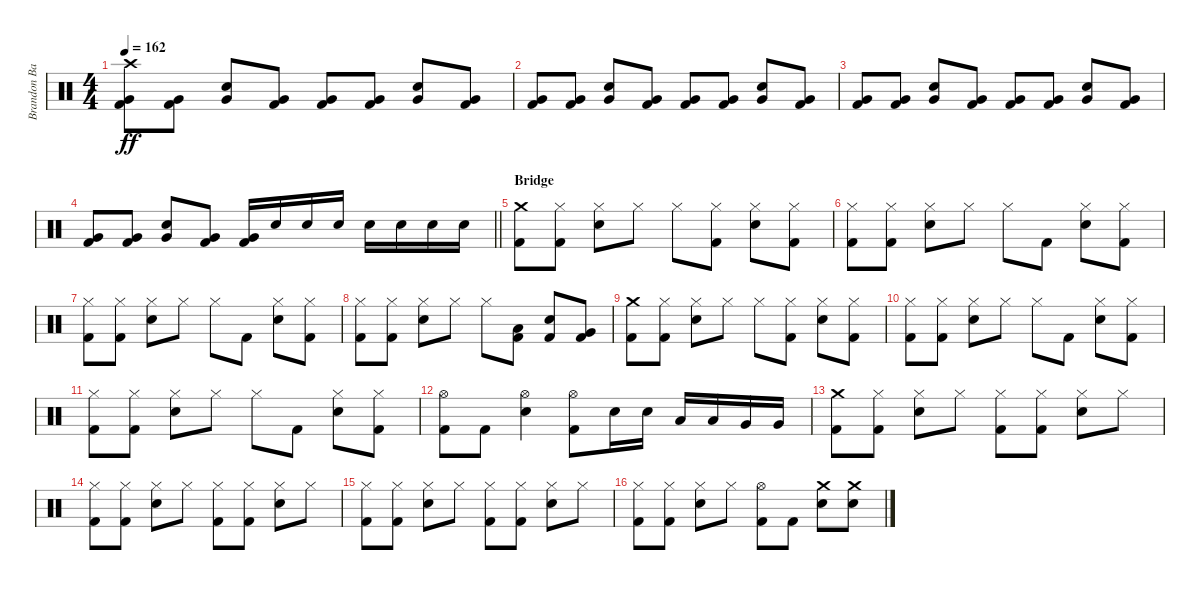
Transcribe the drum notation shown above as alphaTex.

\track ("Brandon Barnes - Drums" "Brandon Ba") {instrument percussion}
\staff {score}
\articulation defaults
\ts (4 4)
\tempo 162
\clef neutral
\ks c
("Very Low Tom (hit)" "Kick (hit) 2" "Crash high (hit)").8{dy ff} ("Very Low Tom (hit)" "Kick (hit) 2").8 ("Snare (hit) 2" "Very Low Tom (hit)").8 ("Very Low Tom (hit)" "Kick (hit) 2").8 ("Very Low Tom (hit)" "Kick (hit) 2").8 ("Very Low Tom (hit)" "Kick (hit) 2").8 ("Snare (hit) 2" "Very Low Tom (hit)").8 ("Very Low Tom (hit)" "Kick (hit) 2").8 |
("Very Low Tom (hit)" "Kick (hit) 2").8 ("Very Low Tom (hit)" "Kick (hit) 2").8 ("Snare (hit) 2" "Very Low Tom (hit)").8 ("Very Low Tom (hit)" "Kick (hit) 2").8 ("Very Low Tom (hit)" "Kick (hit) 2").8 ("Very Low Tom (hit)" "Kick (hit) 2").8 ("Snare (hit) 2" "Very Low Tom (hit)").8 ("Very Low Tom (hit)" "Kick (hit) 2").8 |
("Very Low Tom (hit)" "Kick (hit) 2").8 ("Very Low Tom (hit)" "Kick (hit) 2").8 ("Snare (hit) 2" "Very Low Tom (hit)").8 ("Very Low Tom (hit)" "Kick (hit) 2").8 ("Very Low Tom (hit)" "Kick (hit) 2").8 ("Very Low Tom (hit)" "Kick (hit) 2").8 ("Snare (hit) 2" "Very Low Tom (hit)").8 ("Very Low Tom (hit)" "Kick (hit) 2").8 |
\barLineRight lightlight
("Very Low Tom (hit)" "Kick (hit) 2").8 ("Very Low Tom (hit)" "Kick (hit) 2").8 ("Snare (hit) 2" "Very Low Tom (hit)").8 ("Very Low Tom (hit)" "Kick (hit) 2").8 ("Very Low Tom (hit)" "Kick (hit) 2").16 "Snare (hit) 2".16 "Snare (hit) 2".16 "Snare (hit) 2".16 "Snare (hit) 2".16 "Snare (hit) 2".16 "Snare (hit) 2".16 "Snare (hit) 2".16 |
\section ("" "Bridge")
("Crash medium (hit)" "Kick (hit) 2").8 ("Hi-Hat (closed)" "Kick (hit) 2").8 ("Hi-Hat (closed)" "Electric Snare (hit)").8 "Hi-Hat (closed)".8 "Hi-Hat (closed)".8 ("Hi-Hat (closed)" "Kick (hit) 2").8 ("Hi-Hat (closed)" "Electric Snare (hit)").8 ("Hi-Hat (closed)" "Kick (hit) 2").8 |
("Hi-Hat (closed)" "Kick (hit) 2").8 ("Hi-Hat (closed)" "Kick (hit) 2").8 ("Hi-Hat (closed)" "Electric Snare (hit)").8 "Hi-Hat (closed)".8 "Hi-Hat (closed)".8 "Kick (hit) 2".8 ("Hi-Hat (closed)" "Electric Snare (hit)").8 ("Hi-Hat (closed)" "Kick (hit) 2").8 |
("Hi-Hat (closed)" "Kick (hit) 2").8 ("Hi-Hat (closed)" "Kick (hit) 2").8 ("Hi-Hat (closed)" "Electric Snare (hit)").8 "Hi-Hat (closed)".8 "Hi-Hat (closed)".8 "Kick (hit) 2".8 ("Hi-Hat (closed)" "Electric Snare (hit)").8 ("Hi-Hat (closed)" "Kick (hit) 2").8 |
("Hi-Hat (closed)" "Kick (hit) 2").8 ("Hi-Hat (closed)" "Kick (hit) 2").8 ("Hi-Hat (closed)" "Electric Snare (hit)").8 "Hi-Hat (closed)".8 "Hi-Hat (closed)".8 ("Low Tom (hit)" "Kick (hit) 2").8 ("Electric Snare (hit)" "Kick (hit) 2").8 ("Very Low Tom (hit)" "Kick (hit) 2").8 |
("Crash medium (hit)" "Kick (hit) 2").8 ("Hi-Hat (closed)" "Kick (hit) 2").8 ("Hi-Hat (closed)" "Electric Snare (hit)").8 "Hi-Hat (closed)".8 "Hi-Hat (closed)".8 ("Hi-Hat (closed)" "Kick (hit) 2").8 ("Hi-Hat (closed)" "Electric Snare (hit)").8 ("Hi-Hat (closed)" "Kick (hit) 2").8 |
("Hi-Hat (closed)" "Kick (hit) 2").8 ("Hi-Hat (closed)" "Kick (hit) 2").8 ("Hi-Hat (closed)" "Electric Snare (hit)").8 "Hi-Hat (closed)".8 "Hi-Hat (closed)".8 "Kick (hit) 2".8 ("Hi-Hat (closed)" "Electric Snare (hit)").8 ("Hi-Hat (closed)" "Kick (hit) 2").8 |
("Hi-Hat (closed)" "Kick (hit) 2").8 ("Hi-Hat (closed)" "Kick (hit) 2").8 ("Hi-Hat (closed)" "Electric Snare (hit)").8 "Hi-Hat (closed)".8 "Hi-Hat (closed)".8 "Kick (hit) 2".8 ("Hi-Hat (closed)" "Electric Snare (hit)").8 ("Hi-Hat (closed)" "Kick (hit) 2").8 |
("Hi-Hat (open)" "Kick (hit) 2").8 "Kick (hit) 2".8 ("Hi-Hat (open)" "Electric Snare (hit)").4 ("Hi-Hat (open)" "Kick (hit) 2").8 "Electric Snare (hit)".16 "Electric Snare (hit)".16 "Low Tom (hit)".16 "Low Tom (hit)".16 "Very Low Tom (hit)".16 "Very Low Tom (hit)".16 |
("Crash medium (hit)" "Kick (hit) 2").8 ("Hi-Hat (closed)" "Kick (hit) 2").8 ("Hi-Hat (closed)" "Electric Snare (hit)").8 "Hi-Hat (closed)".8 ("Hi-Hat (closed)" "Kick (hit) 2").8 ("Hi-Hat (closed)" "Kick (hit) 2").8 ("Hi-Hat (closed)" "Electric Snare (hit)").8 "Hi-Hat (closed)".8 |
("Hi-Hat (closed)" "Kick (hit) 2").8 ("Hi-Hat (closed)" "Kick (hit) 2").8 ("Hi-Hat (closed)" "Electric Snare (hit)").8 "Hi-Hat (closed)".8 ("Hi-Hat (closed)" "Kick (hit) 2").8 ("Hi-Hat (closed)" "Kick (hit) 2").8 ("Hi-Hat (closed)" "Electric Snare (hit)").8 "Hi-Hat (closed)".8 |
("Hi-Hat (closed)" "Kick (hit) 2").8 ("Hi-Hat (closed)" "Kick (hit) 2").8 ("Hi-Hat (closed)" "Electric Snare (hit)").8 "Hi-Hat (closed)".8 ("Hi-Hat (closed)" "Kick (hit) 2").8 ("Hi-Hat (closed)" "Kick (hit) 2").8 ("Hi-Hat (closed)" "Electric Snare (hit)").8 "Hi-Hat (closed)".8 |
("Hi-Hat (closed)" "Kick (hit) 2").8 ("Hi-Hat (closed)" "Kick (hit) 2").8 ("Hi-Hat (closed)" "Electric Snare (hit)").8 "Hi-Hat (closed)".8 ("Hi-Hat (open)" "Kick (hit) 2").8 "Kick (hit) 2".8 ("Crash medium (hit)" "Electric Snare (hit)").8 ("Crash medium (hit)" "Electric Snare (hit)").8
